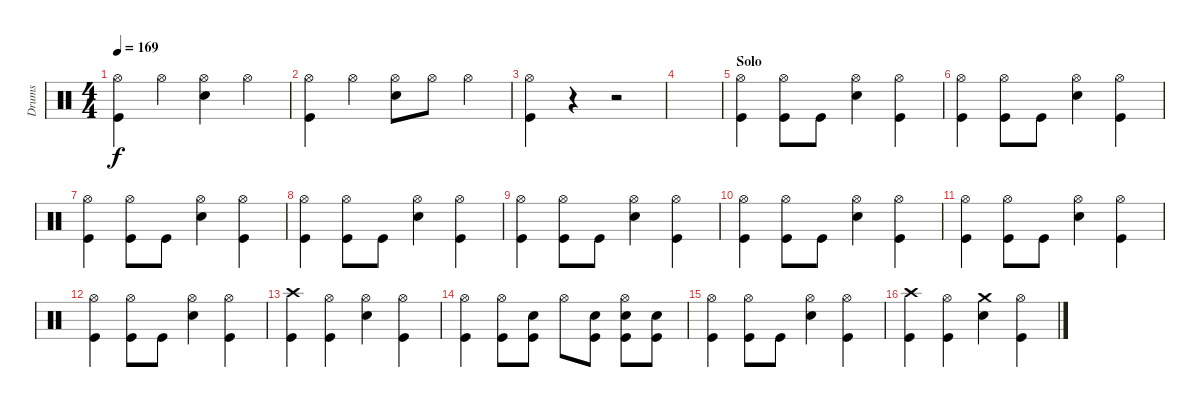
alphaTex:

\track ("Drums" "Drums") {instrument percussion}
\staff {score}
\articulation defaults
\ts (4 4)
\tempo 169
\clef neutral
\ks c
("Hi-Hat (open)" "Kick (hit)").4{dy f} "Hi-Hat (open)".4 ("Hi-Hat (open)" "Snare (hit) 2").4 "Hi-Hat (open)".4 |
("Hi-Hat (open)" "Kick (hit)").4 "Hi-Hat (open)".4 ("Hi-Hat (open)" "Snare (hit) 2").8 "Hi-Hat (open)".8 "Hi-Hat (open)".4 |
("Hi-Hat (open)" "Kick (hit)").4 r.4 r.2 |
|
\section ("" "Solo")
("Hi-Hat (open)" "Kick (hit)").4 ("Hi-Hat (open)" "Kick (hit)").8 "Kick (hit)".8 ("Hi-Hat (open)" "Snare (hit) 2").4 ("Hi-Hat (open)" "Kick (hit)").4 |
("Hi-Hat (open)" "Kick (hit)").4 ("Hi-Hat (open)" "Kick (hit)").8 "Kick (hit)".8 ("Hi-Hat (open)" "Snare (hit) 2").4 ("Hi-Hat (open)" "Kick (hit)").4 |
("Hi-Hat (open)" "Kick (hit)").4 ("Hi-Hat (open)" "Kick (hit)").8 "Kick (hit)".8 ("Hi-Hat (open)" "Snare (hit) 2").4 ("Hi-Hat (open)" "Kick (hit)").4 |
("Hi-Hat (open)" "Kick (hit)").4 ("Hi-Hat (open)" "Kick (hit)").8 "Kick (hit)".8 ("Hi-Hat (open)" "Snare (hit) 2").4 ("Hi-Hat (open)" "Kick (hit)").4 |
("Hi-Hat (open)" "Kick (hit)").4 ("Hi-Hat (open)" "Kick (hit)").8 "Kick (hit)".8 ("Hi-Hat (open)" "Snare (hit) 2").4 ("Hi-Hat (open)" "Kick (hit)").4 |
("Hi-Hat (open)" "Kick (hit)").4 ("Hi-Hat (open)" "Kick (hit)").8 "Kick (hit)".8 ("Hi-Hat (open)" "Snare (hit) 2").4 ("Hi-Hat (open)" "Kick (hit)").4 |
("Hi-Hat (open)" "Kick (hit)").4 ("Hi-Hat (open)" "Kick (hit)").8 "Kick (hit)".8 ("Hi-Hat (open)" "Snare (hit) 2").4 ("Hi-Hat (open)" "Kick (hit)").4 |
("Hi-Hat (open)" "Kick (hit)").4 ("Hi-Hat (open)" "Kick (hit)").8 "Kick (hit)".8 ("Hi-Hat (open)" "Snare (hit) 2").4 ("Hi-Hat (open)" "Kick (hit)").4 |
("Crash high (hit)" "Kick (hit)").4 ("Hi-Hat (open)" "Kick (hit)").4 ("Hi-Hat (open)" "Snare (hit) 2").4 ("Hi-Hat (open)" "Kick (hit)").4 |
("Hi-Hat (open)" "Kick (hit)").4 ("Hi-Hat (open)" "Kick (hit)").8 ("Snare (hit) 2" "Kick (hit)").8 "Hi-Hat (open)".8 ("Snare (hit) 2" "Kick (hit)").8 ("Hi-Hat (open)" "Snare (hit) 2" "Kick (hit)").8 ("Snare (hit) 2" "Kick (hit)").8 |
("Hi-Hat (open)" "Kick (hit)").4 ("Hi-Hat (open)" "Kick (hit)").8 "Kick (hit)".8 ("Hi-Hat (open)" "Snare (hit) 2").4 ("Hi-Hat (open)" "Kick (hit)").4 |
("Crash high (hit)" "Kick (hit)").4 ("Hi-Hat (open)" "Kick (hit)").4 ("Crash medium (hit)" "Snare (hit) 2").4 ("Hi-Hat (open)" "Kick (hit)").4
